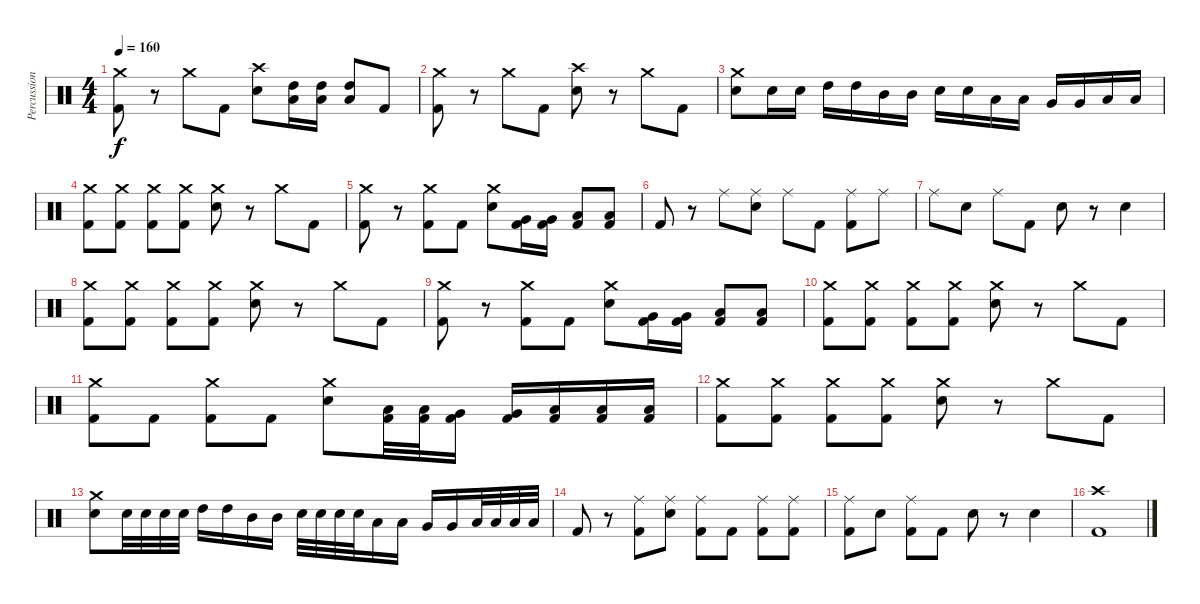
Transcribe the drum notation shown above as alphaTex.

\track ("Percussion" "Percussion") {instrument percussion}
\staff {score}
\articulation defaults
\ts (4 4)
\tempo 160
\clef neutral
\ks c
("Kick (hit) 2" "Crash medium (hit)").8{dy f} r.8 "Crash medium (hit)".8 "Kick (hit) 2".8 ("Snare (hit) 2" "Crash high (hit)").8 ("High Tom (hit)" "Low Tom (hit)").16 ("High Tom (hit)" "Low Tom (hit)").16 ("High Tom (hit)" "Low Tom (hit)").8 "Kick (hit) 2".8 |
("Kick (hit) 2" "Crash medium (hit)").8 r.8 "Crash medium (hit)".8 "Kick (hit) 2".8 ("Snare (hit) 2" "Crash high (hit)").8 r.8 "Crash medium (hit)".8 "Kick (hit) 2".8 |
("Snare (hit) 2" "Crash medium (hit)").8 "Snare (hit) 2".16 "Snare (hit) 2".16 "High Tom (hit)".16 "High Tom (hit)".16 "Mid Tom (hit)".16 "Mid Tom (hit)".16 "Snare (hit) 2".16 "Snare (hit) 2".16 "Low Tom (hit)".16 "Low Tom (hit)".16 "Very Low Tom (hit)".16 "Very Low Tom (hit)".16 "Low Floor Tom (hit)".16 "Low Floor Tom (hit)".16 |
("Kick (hit) 2" "Crash medium (hit)").8 ("Kick (hit) 2" "Crash medium (hit)").8 ("Kick (hit) 2" "Crash medium (hit)").8 ("Kick (hit) 2" "Crash medium (hit)").8 ("Snare (hit) 2" "Crash medium (hit)").8 r.8 "Crash medium (hit)".8 "Kick (hit) 2".8 |
("Kick (hit) 2" "Crash medium (hit)").8 r.8 ("Kick (hit) 2" "Crash medium (hit)").8 "Kick (hit) 2".8 ("Snare (hit) 2" "Crash medium (hit)").8 ("Very Low Tom (hit)" "Kick (hit) 2").16 ("Very Low Tom (hit)" "Kick (hit) 2").16 ("Low Floor Tom (hit)" "Kick (hit) 2").8 ("Low Floor Tom (hit)" "Kick (hit) 2").8 |
"Kick (hit) 2".8 r.8 "Ride (middle)".8 ("Snare (hit) 2" "Ride (middle)").8 "Ride (middle)".8 "Kick (hit) 2".8 ("Kick (hit) 2" "Ride (middle)").8 "Ride (middle)".8 |
"Ride (middle)".8 "Snare (hit) 2".8 "Ride (middle)".8 "Kick (hit) 2".8 "Snare (hit) 2".8 r.8 "Snare (hit) 2".4 |
("Kick (hit) 2" "Crash medium (hit)").8 ("Kick (hit) 2" "Crash medium (hit)").8 ("Kick (hit) 2" "Crash medium (hit)").8 ("Kick (hit) 2" "Crash medium (hit)").8 ("Snare (hit) 2" "Crash medium (hit)").8 r.8 "Crash medium (hit)".8 "Kick (hit) 2".8 |
("Kick (hit) 2" "Crash medium (hit)").8 r.8 ("Kick (hit) 2" "Crash medium (hit)").8 "Kick (hit) 2".8 ("Snare (hit) 2" "Crash medium (hit)").8 ("Very Low Tom (hit)" "Kick (hit) 2").16 ("Very Low Tom (hit)" "Kick (hit) 2").16 ("Low Floor Tom (hit)" "Kick (hit) 2").8 ("Low Floor Tom (hit)" "Kick (hit) 2").8 |
("Kick (hit) 2" "Crash medium (hit)").8 ("Kick (hit) 2" "Crash medium (hit)").8 ("Kick (hit) 2" "Crash medium (hit)").8 ("Kick (hit) 2" "Crash medium (hit)").8 ("Snare (hit) 2" "Crash medium (hit)").8 r.8 "Crash medium (hit)".8 "Kick (hit) 2".8 |
("Kick (hit) 2" "Crash medium (hit)").8 "Kick (hit) 2".8 ("Kick (hit) 2" "Crash medium (hit)").8 "Kick (hit) 2".8 ("Snare (hit) 2" "Crash medium (hit)").8 ("Kick (hit) 2" "Low Tom (hit)").32 ("Kick (hit) 2" "Low Tom (hit)").32 ("Kick (hit) 2" "Very Low Tom (hit)").16 ("Kick (hit) 2" "Very Low Tom (hit)").16 ("Kick (hit) 2" "Low Tom (hit)").16 ("Kick (hit) 2" "Low Floor Tom (hit)").16 ("Kick (hit) 2" "Low Floor Tom (hit)").16 |
("Kick (hit) 2" "Crash medium (hit)").8 ("Kick (hit) 2" "Crash medium (hit)").8 ("Kick (hit) 2" "Crash medium (hit)").8 ("Kick (hit) 2" "Crash medium (hit)").8 ("Snare (hit) 2" "Crash medium (hit)").8 r.8 "Crash medium (hit)".8 "Kick (hit) 2".8 |
("Snare (hit) 2" "Crash medium (hit)").8 "Snare (hit) 2".32 "Snare (hit) 2".32 "Snare (hit) 2".32 "Snare (hit) 2".32 "High Tom (hit)".16 "High Tom (hit)".16 "Mid Tom (hit)".16 "Mid Tom (hit)".16 "Snare (hit) 2".32 "Snare (hit) 2".32 "Snare (hit) 2".32 "Snare (hit) 2".32 "Low Tom (hit)".16 "Low Tom (hit)".16 "Very Low Tom (hit)".16 "Very Low Tom (hit)".16 "Low Floor Tom (hit)".32 "Low Floor Tom (hit)".32 "Low Floor Tom (hit)".32 "Low Floor Tom (hit)".32 |
"Kick (hit) 2".8 r.8 ("Kick (hit) 2" "Ride (middle)").8 ("Snare (hit) 2" "Ride (middle)").8 ("Kick (hit) 2" "Ride (middle)").8 "Kick (hit) 2".8 ("Kick (hit) 2" "Ride (middle)").8 ("Kick (hit) 2" "Ride (middle)").8 |
("Kick (hit) 2" "Ride (middle)").8 "Snare (hit) 2".8 ("Kick (hit) 2" "Ride (middle)").8 "Kick (hit) 2".8 "Snare (hit) 2".8 r.8 "Snare (hit) 2".4 |
("Kick (hit) 2" "Crash high (hit)").1
